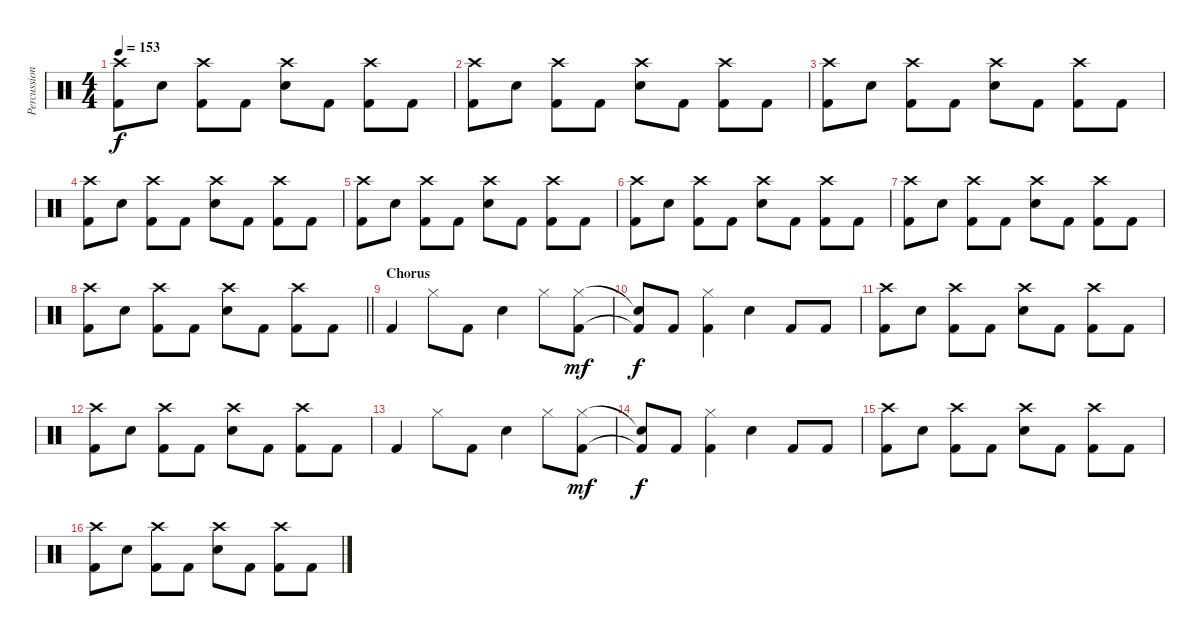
\track ("Percussion" "Percussion") {instrument percussion}
\staff {score}
\articulation defaults
\ts (4 4)
\tempo 153
\clef neutral
\ks c
("Kick (hit) 2" "Crash high (hit)").8{dy f} "Snare (hit) 2".8 ("Kick (hit) 2" "Crash high (hit)").8 "Kick (hit) 2".8 ("Snare (hit) 2" "Crash high (hit)").8 "Kick (hit) 2".8 ("Kick (hit) 2" "Crash high (hit)").8 "Kick (hit) 2".8 |
("Kick (hit) 2" "Crash high (hit)").8 "Snare (hit) 2".8 ("Kick (hit) 2" "Crash high (hit)").8 "Kick (hit) 2".8 ("Snare (hit) 2" "Crash high (hit)").8 "Kick (hit) 2".8 ("Kick (hit) 2" "Crash high (hit)").8 "Kick (hit) 2".8 |
("Kick (hit) 2" "Crash high (hit)").8 "Snare (hit) 2".8 ("Kick (hit) 2" "Crash high (hit)").8 "Kick (hit) 2".8 ("Snare (hit) 2" "Crash high (hit)").8 "Kick (hit) 2".8 ("Kick (hit) 2" "Crash high (hit)").8 "Kick (hit) 2".8 |
("Kick (hit) 2" "Crash high (hit)").8 "Snare (hit) 2".8 ("Kick (hit) 2" "Crash high (hit)").8 "Kick (hit) 2".8 ("Snare (hit) 2" "Crash high (hit)").8 "Kick (hit) 2".8 ("Kick (hit) 2" "Crash high (hit)").8 "Kick (hit) 2".8 |
("Kick (hit) 2" "Crash high (hit)").8 "Snare (hit) 2".8 ("Kick (hit) 2" "Crash high (hit)").8 "Kick (hit) 2".8 ("Snare (hit) 2" "Crash high (hit)").8 "Kick (hit) 2".8 ("Kick (hit) 2" "Crash high (hit)").8 "Kick (hit) 2".8 |
("Kick (hit) 2" "Crash high (hit)").8 "Snare (hit) 2".8 ("Kick (hit) 2" "Crash high (hit)").8 "Kick (hit) 2".8 ("Snare (hit) 2" "Crash high (hit)").8 "Kick (hit) 2".8 ("Kick (hit) 2" "Crash high (hit)").8 "Kick (hit) 2".8 |
("Kick (hit) 2" "Crash high (hit)").8 "Snare (hit) 2".8 ("Kick (hit) 2" "Crash high (hit)").8 "Kick (hit) 2".8 ("Snare (hit) 2" "Crash high (hit)").8 "Kick (hit) 2".8 ("Kick (hit) 2" "Crash high (hit)").8 "Kick (hit) 2".8 |
\barLineRight lightlight
("Kick (hit) 2" "Crash high (hit)").8 "Snare (hit) 2".8 ("Kick (hit) 2" "Crash high (hit)").8 "Kick (hit) 2".8 ("Snare (hit) 2" "Crash high (hit)").8 "Kick (hit) 2".8 ("Kick (hit) 2" "Crash high (hit)").8 "Kick (hit) 2".8 |
\section ("" "Chorus")
"Kick (hit) 2".4 "Hi-Hat (closed)".8 "Kick (hit) 2".8 "Snare (hit) 2".4 "Hi-Hat (closed)".8 ("Kick (hit) 2" "Hi-Hat (closed)").8{dy mf} |
("Kick (hit) 2"{t} "Snare (hit)"{t}).8{dy f} "Kick (hit) 2".8 ("Kick (hit) 2" "Hi-Hat (closed)").4 "Snare (hit) 2".4 "Kick (hit) 2".8 "Kick (hit) 2".8 |
("Kick (hit) 2" "Crash high (hit)").8 "Snare (hit) 2".8 ("Kick (hit) 2" "Crash high (hit)").8 "Kick (hit) 2".8 ("Snare (hit) 2" "Crash high (hit)").8 "Kick (hit) 2".8 ("Kick (hit) 2" "Crash high (hit)").8 "Kick (hit) 2".8 |
("Kick (hit) 2" "Crash high (hit)").8 "Snare (hit) 2".8 ("Kick (hit) 2" "Crash high (hit)").8 "Kick (hit) 2".8 ("Snare (hit) 2" "Crash high (hit)").8 "Kick (hit) 2".8 ("Kick (hit) 2" "Crash high (hit)").8 "Kick (hit) 2".8 |
"Kick (hit) 2".4 "Hi-Hat (closed)".8 "Kick (hit) 2".8 "Snare (hit) 2".4 "Hi-Hat (closed)".8 ("Kick (hit) 2" "Hi-Hat (closed)").8{dy mf} |
("Kick (hit) 2"{t} "Snare (hit)"{t}).8{dy f} "Kick (hit) 2".8 ("Kick (hit) 2" "Hi-Hat (closed)").4 "Snare (hit) 2".4 "Kick (hit) 2".8 "Kick (hit) 2".8 |
("Kick (hit) 2" "Crash high (hit)").8 "Snare (hit) 2".8 ("Kick (hit) 2" "Crash high (hit)").8 "Kick (hit) 2".8 ("Snare (hit) 2" "Crash high (hit)").8 "Kick (hit) 2".8 ("Kick (hit) 2" "Crash high (hit)").8 "Kick (hit) 2".8 |
("Kick (hit) 2" "Crash high (hit)").8 "Snare (hit) 2".8 ("Kick (hit) 2" "Crash high (hit)").8 "Kick (hit) 2".8 ("Snare (hit) 2" "Crash high (hit)").8 "Kick (hit) 2".8 ("Kick (hit) 2" "Crash high (hit)").8 "Kick (hit) 2".8
